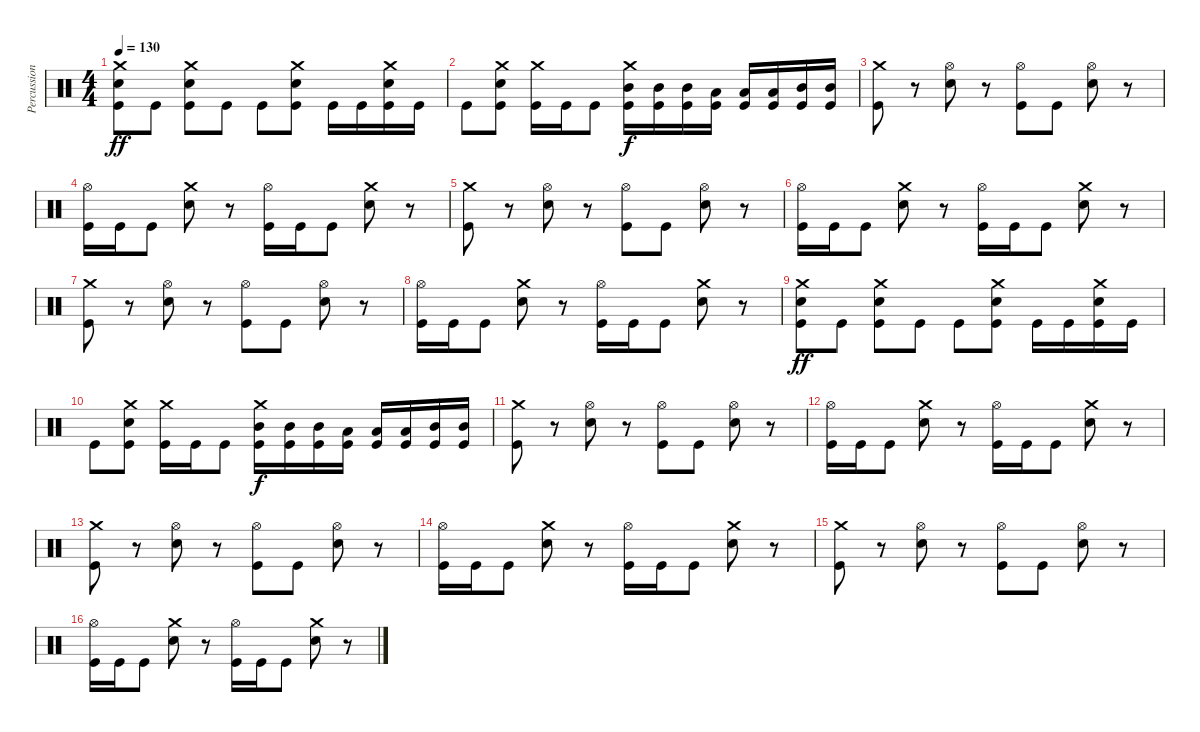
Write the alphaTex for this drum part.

\track ("Percussion" "Percussion") {instrument percussion}
\staff {score}
\articulation defaults
\ts (4 4)
\tempo 130
\clef neutral
\ks c
("Crash medium (hit)" "Snare (hit) 2" "Kick (hit)").8{dy ff} "Kick (hit)".8 ("Crash medium (hit)" "Snare (hit) 2" "Kick (hit)").8 "Kick (hit)".8 "Kick (hit)".8 ("Crash medium (hit)" "Snare (hit) 2" "Kick (hit)").8 "Kick (hit)".16 "Kick (hit)".16 ("Crash medium (hit)" "Snare (hit) 2" "Kick (hit)").16 "Kick (hit)".16 |
"Kick (hit)".8 ("Crash medium (hit)" "Snare (hit) 2" "Kick (hit)").8 ("Crash medium (hit)" "Kick (hit)").16 "Kick (hit)".16 "Kick (hit)".8 ("Crash medium (hit)" "Mid Tom (hit)" "Kick (hit)").16{dy f} ("Mid Tom (hit)" "Kick (hit)").16 ("Mid Tom (hit)" "Kick (hit)").16 ("Low Tom (hit)" "Kick (hit)").16 ("Low Tom (hit)" "Kick (hit)").16 ("Low Tom (hit)" "Kick (hit)").16 ("Mid Tom (hit)" "Kick (hit)").16 ("Mid Tom (hit)" "Kick (hit)").16 |
("Crash medium (hit)" "Kick (hit)").8 r.8 ("Hi-Hat (open)" "Snare (hit) 2").8 r.8 ("Hi-Hat (open)" "Kick (hit)").8 "Kick (hit)".8 ("Hi-Hat (open)" "Snare (hit) 2").8 r.8 |
("Hi-Hat (open)" "Kick (hit)").16 "Kick (hit)".16 "Kick (hit)".8 ("Crash medium (hit)" "Snare (hit) 2").8 r.8 ("Hi-Hat (open)" "Kick (hit)").16 "Kick (hit)".16 "Kick (hit)".8 ("Crash medium (hit)" "Snare (hit) 2").8 r.8 |
("Crash medium (hit)" "Kick (hit)").8 r.8 ("Hi-Hat (open)" "Snare (hit) 2").8 r.8 ("Hi-Hat (open)" "Kick (hit)").8 "Kick (hit)".8 ("Hi-Hat (open)" "Snare (hit) 2").8 r.8 |
("Hi-Hat (open)" "Kick (hit)").16 "Kick (hit)".16 "Kick (hit)".8 ("Crash medium (hit)" "Snare (hit) 2").8 r.8 ("Hi-Hat (open)" "Kick (hit)").16 "Kick (hit)".16 "Kick (hit)".8 ("Crash medium (hit)" "Snare (hit) 2").8 r.8 |
("Crash medium (hit)" "Kick (hit)").8 r.8 ("Hi-Hat (open)" "Snare (hit) 2").8 r.8 ("Hi-Hat (open)" "Kick (hit)").8 "Kick (hit)".8 ("Hi-Hat (open)" "Snare (hit) 2").8 r.8 |
("Hi-Hat (open)" "Kick (hit)").16 "Kick (hit)".16 "Kick (hit)".8 ("Crash medium (hit)" "Snare (hit) 2").8 r.8 ("Hi-Hat (open)" "Kick (hit)").16 "Kick (hit)".16 "Kick (hit)".8 ("Crash medium (hit)" "Snare (hit) 2").8 r.8 |
("Crash medium (hit)" "Snare (hit) 2" "Kick (hit)").8{dy ff} "Kick (hit)".8 ("Crash medium (hit)" "Snare (hit) 2" "Kick (hit)").8 "Kick (hit)".8 "Kick (hit)".8 ("Crash medium (hit)" "Snare (hit) 2" "Kick (hit)").8 "Kick (hit)".16 "Kick (hit)".16 ("Crash medium (hit)" "Snare (hit) 2" "Kick (hit)").16 "Kick (hit)".16 |
"Kick (hit)".8 ("Crash medium (hit)" "Snare (hit) 2" "Kick (hit)").8 ("Crash medium (hit)" "Kick (hit)").16 "Kick (hit)".16 "Kick (hit)".8 ("Crash medium (hit)" "Mid Tom (hit)" "Kick (hit)").16{dy f} ("Mid Tom (hit)" "Kick (hit)").16 ("Mid Tom (hit)" "Kick (hit)").16 ("Low Tom (hit)" "Kick (hit)").16 ("Low Tom (hit)" "Kick (hit)").16 ("Low Tom (hit)" "Kick (hit)").16 ("Mid Tom (hit)" "Kick (hit)").16 ("Mid Tom (hit)" "Kick (hit)").16 |
("Crash medium (hit)" "Kick (hit)").8 r.8 ("Hi-Hat (open)" "Snare (hit) 2").8 r.8 ("Hi-Hat (open)" "Kick (hit)").8 "Kick (hit)".8 ("Hi-Hat (open)" "Snare (hit) 2").8 r.8 |
("Hi-Hat (open)" "Kick (hit)").16 "Kick (hit)".16 "Kick (hit)".8 ("Crash medium (hit)" "Snare (hit) 2").8 r.8 ("Hi-Hat (open)" "Kick (hit)").16 "Kick (hit)".16 "Kick (hit)".8 ("Crash medium (hit)" "Snare (hit) 2").8 r.8 |
("Crash medium (hit)" "Kick (hit)").8 r.8 ("Hi-Hat (open)" "Snare (hit) 2").8 r.8 ("Hi-Hat (open)" "Kick (hit)").8 "Kick (hit)".8 ("Hi-Hat (open)" "Snare (hit) 2").8 r.8 |
("Hi-Hat (open)" "Kick (hit)").16 "Kick (hit)".16 "Kick (hit)".8 ("Crash medium (hit)" "Snare (hit) 2").8 r.8 ("Hi-Hat (open)" "Kick (hit)").16 "Kick (hit)".16 "Kick (hit)".8 ("Crash medium (hit)" "Snare (hit) 2").8 r.8 |
("Crash medium (hit)" "Kick (hit)").8 r.8 ("Hi-Hat (open)" "Snare (hit) 2").8 r.8 ("Hi-Hat (open)" "Kick (hit)").8 "Kick (hit)".8 ("Hi-Hat (open)" "Snare (hit) 2").8 r.8 |
("Hi-Hat (open)" "Kick (hit)").16 "Kick (hit)".16 "Kick (hit)".8 ("Crash medium (hit)" "Snare (hit) 2").8 r.8 ("Hi-Hat (open)" "Kick (hit)").16 "Kick (hit)".16 "Kick (hit)".8 ("Crash medium (hit)" "Snare (hit) 2").8 r.8
